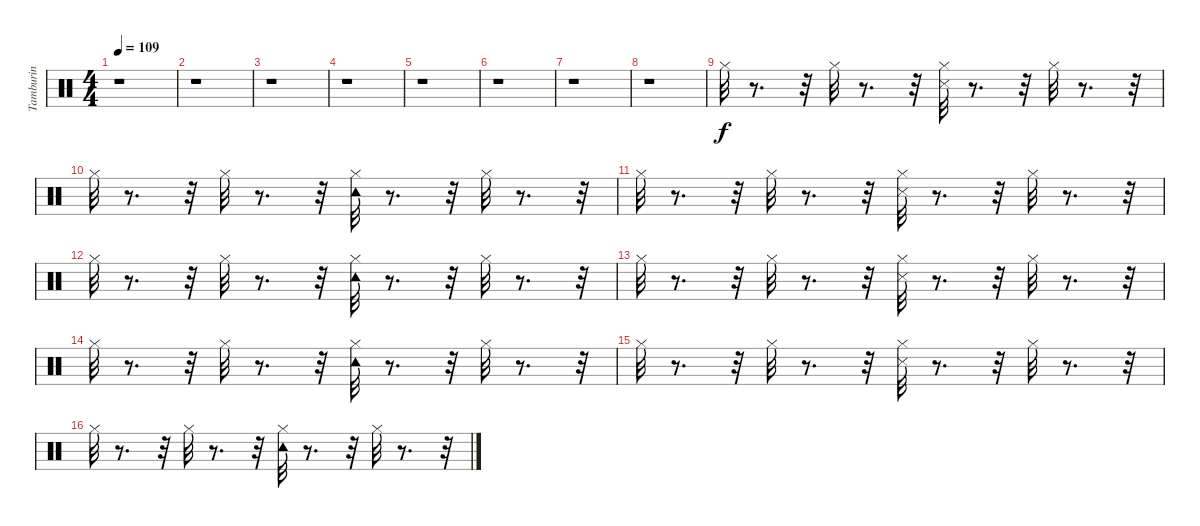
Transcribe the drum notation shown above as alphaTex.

\track ("Tamburin" "Tamburin") {instrument percussion}
\staff {score}
\articulation defaults
\ts (4 4)
\tempo 109
\clef neutral
\ks c
r.1{dy f} |
r.1 |
r.1 |
r.1 |
r.1 |
r.1 |
r.1 |
r.1 |
"Hi-Hat (closed)".32 r.8{d} r.32 "Hi-Hat (closed)".32 r.8{d} r.32 ("Snare (side stick) 3" "Hi-Hat (closed)").32 r.8{d} r.32 "Hi-Hat (closed)".32 r.8{d} r.32 |
"Hi-Hat (closed)".32 r.8{d} r.32 "Hi-Hat (closed)".32 r.8{d} r.32 ("Hi-Hat (closed)" "Tambourine (hit)").32 r.8{d} r.32 "Hi-Hat (closed)".32 r.8{d} r.32 |
"Hi-Hat (closed)".32 r.8{d} r.32 "Hi-Hat (closed)".32 r.8{d} r.32 ("Snare (side stick) 3" "Hi-Hat (closed)").32 r.8{d} r.32 "Hi-Hat (closed)".32 r.8{d} r.32 |
"Hi-Hat (closed)".32 r.8{d} r.32 "Hi-Hat (closed)".32 r.8{d} r.32 ("Hi-Hat (closed)" "Tambourine (hit)").32 r.8{d} r.32 "Hi-Hat (closed)".32 r.8{d} r.32 |
"Hi-Hat (closed)".32 r.8{d} r.32 "Hi-Hat (closed)".32 r.8{d} r.32 ("Snare (side stick) 3" "Hi-Hat (closed)").32 r.8{d} r.32 "Hi-Hat (closed)".32 r.8{d} r.32 |
"Hi-Hat (closed)".32 r.8{d} r.32 "Hi-Hat (closed)".32 r.8{d} r.32 ("Hi-Hat (closed)" "Tambourine (hit)").32 r.8{d} r.32 "Hi-Hat (closed)".32 r.8{d} r.32 |
"Hi-Hat (closed)".32 r.8{d} r.32 "Hi-Hat (closed)".32 r.8{d} r.32 ("Snare (side stick) 3" "Hi-Hat (closed)").32 r.8{d} r.32 "Hi-Hat (closed)".32 r.8{d} r.32 |
"Hi-Hat (closed)".32 r.8{d} r.32 "Hi-Hat (closed)".32 r.8{d} r.32 ("Hi-Hat (closed)" "Tambourine (hit)").32 r.8{d} r.32 "Hi-Hat (closed)".32 r.8{d} r.32
